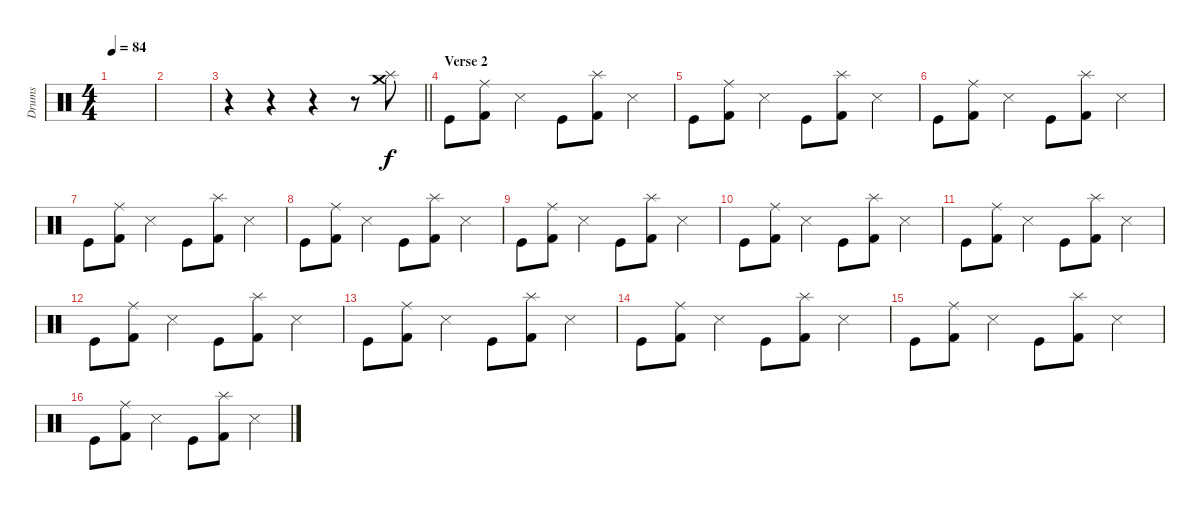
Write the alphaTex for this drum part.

\track ("Drums" "Drums") {instrument percussion}
\staff {score}
\articulation defaults
\ts (4 4)
\tempo 84
\clef neutral
\ks c
|
|
\barLineRight lightlight
r.4 r.4 r.4 r.8 ("Crash medium (hit)" "Splash (hit)").8 |
\section ("" "Verse 2")
"Kick (hit)".8 ("Kick (hit) 2" "Ride (middle)").8 "Snare (side stick) 3".4 "Kick (hit)".8 ("Kick (hit) 2" "Splash (hit)").8 "Snare (side stick) 3".4 |
"Kick (hit)".8 ("Kick (hit) 2" "Ride (middle)").8 "Snare (side stick) 3".4 "Kick (hit)".8 ("Kick (hit) 2" "Splash (hit)").8 "Snare (side stick) 3".4 |
"Kick (hit)".8 ("Kick (hit) 2" "Ride (middle)").8 "Snare (side stick) 3".4 "Kick (hit)".8 ("Kick (hit) 2" "Splash (hit)").8 "Snare (side stick) 3".4 |
"Kick (hit)".8 ("Kick (hit) 2" "Ride (middle)").8 "Snare (side stick) 3".4 "Kick (hit)".8 ("Kick (hit) 2" "Splash (hit)").8 "Snare (side stick) 3".4 |
"Kick (hit)".8 ("Kick (hit) 2" "Ride (middle)").8 "Snare (side stick) 3".4 "Kick (hit)".8 ("Kick (hit) 2" "Splash (hit)").8 "Snare (side stick) 3".4 |
"Kick (hit)".8 ("Kick (hit) 2" "Ride (middle)").8 "Snare (side stick) 3".4 "Kick (hit)".8 ("Kick (hit) 2" "Splash (hit)").8 "Snare (side stick) 3".4 |
"Kick (hit)".8 ("Kick (hit) 2" "Ride (middle)").8 "Snare (side stick) 3".4 "Kick (hit)".8 ("Kick (hit) 2" "Splash (hit)").8 "Snare (side stick) 3".4 |
"Kick (hit)".8 ("Kick (hit) 2" "Ride (middle)").8 "Snare (side stick) 3".4 "Kick (hit)".8 ("Kick (hit) 2" "Splash (hit)").8 "Snare (side stick) 3".4 |
"Kick (hit)".8 ("Kick (hit) 2" "Ride (middle)").8 "Snare (side stick) 3".4 "Kick (hit)".8 ("Kick (hit) 2" "Splash (hit)").8 "Snare (side stick) 3".4 |
"Kick (hit)".8 ("Kick (hit) 2" "Ride (middle)").8 "Snare (side stick) 3".4 "Kick (hit)".8 ("Kick (hit) 2" "Splash (hit)").8 "Snare (side stick) 3".4 |
"Kick (hit)".8 ("Kick (hit) 2" "Ride (middle)").8 "Snare (side stick) 3".4 "Kick (hit)".8 ("Kick (hit) 2" "Splash (hit)").8 "Snare (side stick) 3".4 |
"Kick (hit)".8 ("Kick (hit) 2" "Ride (middle)").8 "Snare (side stick) 3".4 "Kick (hit)".8 ("Kick (hit) 2" "Splash (hit)").8 "Snare (side stick) 3".4 |
"Kick (hit)".8 ("Kick (hit) 2" "Ride (middle)").8 "Snare (side stick) 3".4 "Kick (hit)".8 ("Kick (hit) 2" "Splash (hit)").8 "Snare (side stick) 3".4
